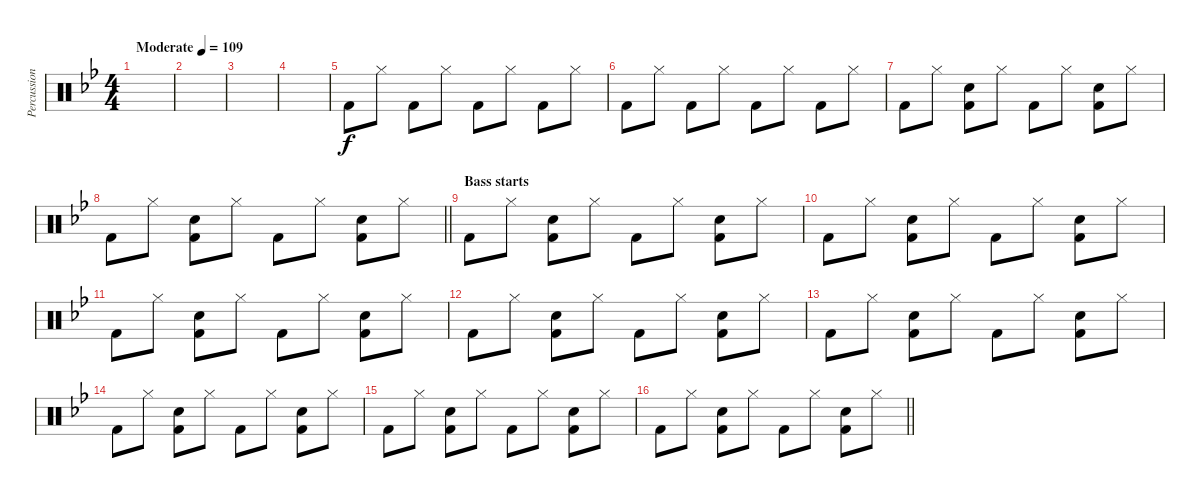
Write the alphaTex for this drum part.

\track ("Percussions" "Percussion") {instrument percussion}
\staff {score}
\articulation defaults
\ts (4 4)
\tempo (109 "Moderate")
\clef neutral
\ks bb
|
|
|
|
"Kick (hit) 2".8{volume 13} "Hi-Hat (closed)".8 "Kick (hit) 2".8 "Hi-Hat (closed)".8 "Kick (hit) 2".8 "Hi-Hat (closed)".8 "Kick (hit) 2".8 "Hi-Hat (closed)".8 |
"Kick (hit) 2".8 "Hi-Hat (closed)".8 "Kick (hit) 2".8 "Hi-Hat (closed)".8 "Kick (hit) 2".8 "Hi-Hat (closed)".8 "Kick (hit) 2".8 "Hi-Hat (closed)".8 |
"Kick (hit) 2".8 "Hi-Hat (closed)".8 ("Snare (hit) 2" "Kick (hit) 2").8 "Hi-Hat (closed)".8 "Kick (hit) 2".8 "Hi-Hat (closed)".8 ("Snare (hit) 2" "Kick (hit) 2").8 "Hi-Hat (closed)".8 |
\barLineRight lightlight "Kick (hit) 2".8 "Hi-Hat (closed)".8
("Snare (hit) 2" "Kick (hit) 2").8 "Hi-Hat (closed)".8 "Kick (hit) 2".8 "Hi-Hat (closed)".8 ("Snare (hit) 2" "Kick (hit) 2").8 "Hi-Hat (closed)".8 |
\section ("" "Bass starts")
"Kick (hit) 2".8 "Hi-Hat (closed)".8 ("Snare (hit) 2" "Kick (hit) 2").8 "Hi-Hat (closed)".8 "Kick (hit) 2".8 "Hi-Hat (closed)".8 ("Snare (hit) 2" "Kick (hit) 2").8 "Hi-Hat (closed)".8 |
"Kick (hit) 2".8 "Hi-Hat (closed)".8 ("Snare (hit) 2" "Kick (hit) 2").8 "Hi-Hat (closed)".8 "Kick (hit) 2".8 "Hi-Hat (closed)".8 ("Snare (hit) 2" "Kick (hit) 2").8 "Hi-Hat (closed)".8 |
"Kick (hit) 2".8 "Hi-Hat (closed)".8 ("Snare (hit) 2" "Kick (hit) 2").8 "Hi-Hat (closed)".8 "Kick (hit) 2".8 "Hi-Hat (closed)".8 ("Snare (hit) 2" "Kick (hit) 2").8 "Hi-Hat (closed)".8 |
"Kick (hit) 2".8 "Hi-Hat (closed)".8 ("Snare (hit) 2" "Kick (hit) 2").8 "Hi-Hat (closed)".8 "Kick (hit) 2".8 "Hi-Hat (closed)".8 ("Snare (hit) 2" "Kick (hit) 2").8 "Hi-Hat (closed)".8 |
"Kick (hit) 2".8 "Hi-Hat (closed)".8 ("Snare (hit) 2" "Kick (hit) 2").8 "Hi-Hat (closed)".8 "Kick (hit) 2".8 "Hi-Hat (closed)".8 ("Snare (hit) 2" "Kick (hit) 2").8 "Hi-Hat (closed)".8 |
"Kick (hit) 2".8 "Hi-Hat (closed)".8 ("Snare (hit) 2" "Kick (hit) 2").8 "Hi-Hat (closed)".8 "Kick (hit) 2".8 "Hi-Hat (closed)".8 ("Snare (hit) 2" "Kick (hit) 2").8 "Hi-Hat (closed)".8 |
"Kick (hit) 2".8 "Hi-Hat (closed)".8 ("Snare (hit) 2" "Kick (hit) 2").8 "Hi-Hat (closed)".8 "Kick (hit) 2".8 "Hi-Hat (closed)".8 ("Snare (hit) 2" "Kick (hit) 2").8 "Hi-Hat (closed)".8 |
\barLineRight lightlight "Kick (hit) 2".8 "Hi-Hat (closed)".8
("Snare (hit) 2" "Kick (hit) 2").8 "Hi-Hat (closed)".8 "Kick (hit) 2".8 "Hi-Hat (closed)".8 ("Snare (hit) 2" "Kick (hit) 2").8 "Hi-Hat (closed)".8
